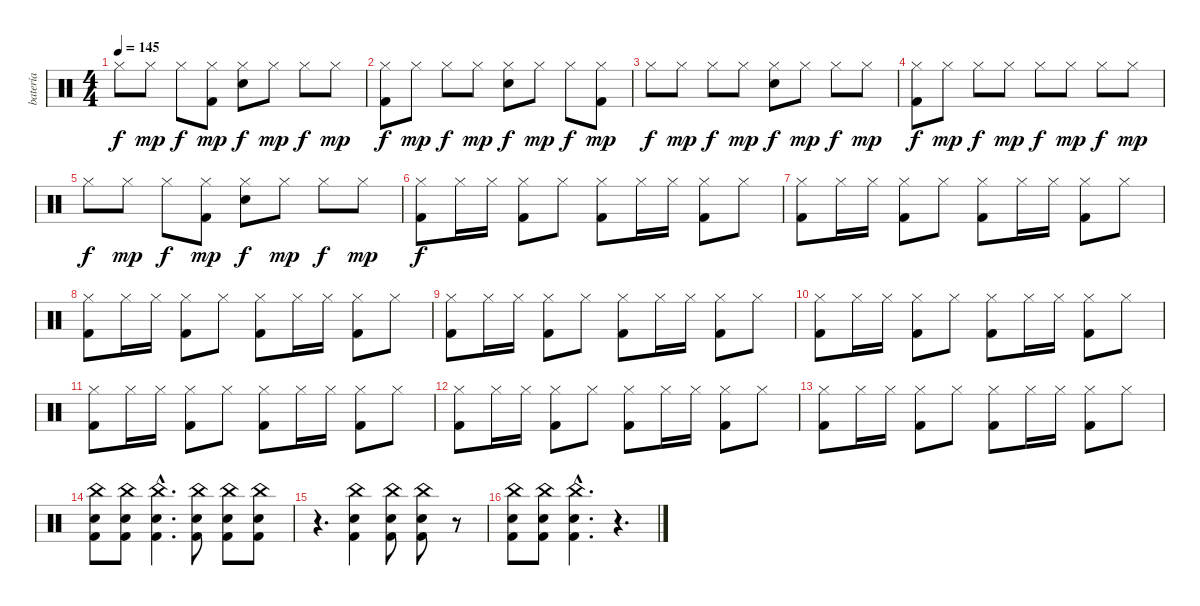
\track ("batería" "batería") {instrument percussion}
\staff {score}
\articulation defaults
\ts (4 4)
\tempo 145
\clef neutral
\ks c "Hi-Hat (closed)".8{dy f} "Hi-Hat (closed)".8{dy mp} "Hi-Hat (closed)".8{dy f}
("Hi-Hat (closed)" "Kick (hit) 2").8{dy mp} ("Hi-Hat (closed)" "Electric Snare (hit)").8{dy f} "Hi-Hat (closed)".8{dy mp} "Hi-Hat (closed)".8{dy f} "Hi-Hat (closed)".8{dy mp} |
("Hi-Hat (closed)" "Kick (hit) 2").8{dy f} "Hi-Hat (closed)".8{dy mp} "Hi-Hat (closed)".8{dy f} "Hi-Hat (closed)".8{dy mp} ("Hi-Hat (closed)" "Electric Snare (hit)").8{dy f} "Hi-Hat (closed)".8{dy mp} "Hi-Hat (closed)".8{dy f} ("Hi-Hat (closed)" "Kick (hit) 2").8{dy mp} |
"Hi-Hat (closed)".8{dy f} "Hi-Hat (closed)".8{dy mp} "Hi-Hat (closed)".8{dy f} "Hi-Hat (closed)".8{dy mp} ("Hi-Hat (closed)" "Electric Snare (hit)").8{dy f} "Hi-Hat (closed)".8{dy mp} "Hi-Hat (closed)".8{dy f} "Hi-Hat (closed)".8{dy mp} |
("Hi-Hat (closed)" "Kick (hit) 2").8{dy f} "Hi-Hat (closed)".8{dy mp} "Hi-Hat (closed)".8{dy f} "Hi-Hat (closed)".8{dy mp} "Hi-Hat (closed)".8{dy f} "Hi-Hat (closed)".8{dy mp} "Hi-Hat (closed)".8{dy f} "Hi-Hat (closed)".8{dy mp} |
"Hi-Hat (closed)".8{dy f} "Hi-Hat (closed)".8{dy mp} "Hi-Hat (closed)".8{dy f} ("Hi-Hat (closed)" "Kick (hit) 2").8{dy mp} ("Hi-Hat (closed)" "Electric Snare (hit)").8{dy f} "Hi-Hat (closed)".8{dy mp} "Hi-Hat (closed)".8{dy f} "Hi-Hat (closed)".8{dy mp} |
("Hi-Hat (closed)" "Kick (hit) 2").8{dy f} "Hi-Hat (closed)".16 "Hi-Hat (closed)".16 ("Hi-Hat (closed)" "Kick (hit) 2").8 "Hi-Hat (closed)".8 ("Hi-Hat (closed)" "Kick (hit) 2").8 "Hi-Hat (closed)".16 "Hi-Hat (closed)".16 ("Hi-Hat (closed)" "Kick (hit) 2").8 "Hi-Hat (closed)".8 |
("Hi-Hat (closed)" "Kick (hit) 2").8 "Hi-Hat (closed)".16 "Hi-Hat (closed)".16 ("Hi-Hat (closed)" "Kick (hit) 2").8 "Hi-Hat (closed)".8 ("Hi-Hat (closed)" "Kick (hit) 2").8 "Hi-Hat (closed)".16 "Hi-Hat (closed)".16 ("Hi-Hat (closed)" "Kick (hit) 2").8 "Hi-Hat (closed)".8 |
("Hi-Hat (closed)" "Kick (hit) 2").8 "Hi-Hat (closed)".16 "Hi-Hat (closed)".16 ("Hi-Hat (closed)" "Kick (hit) 2").8 "Hi-Hat (closed)".8 ("Hi-Hat (closed)" "Kick (hit) 2").8 "Hi-Hat (closed)".16 "Hi-Hat (closed)".16 ("Hi-Hat (closed)" "Kick (hit) 2").8 "Hi-Hat (closed)".8 |
("Hi-Hat (closed)" "Kick (hit) 2").8 "Hi-Hat (closed)".16 "Hi-Hat (closed)".16 ("Hi-Hat (closed)" "Kick (hit) 2").8 "Hi-Hat (closed)".8 ("Hi-Hat (closed)" "Kick (hit) 2").8 "Hi-Hat (closed)".16 "Hi-Hat (closed)".16 ("Hi-Hat (closed)" "Kick (hit) 2").8 "Hi-Hat (closed)".8 |
("Hi-Hat (closed)" "Kick (hit) 2").8 "Hi-Hat (closed)".16 "Hi-Hat (closed)".16 ("Hi-Hat (closed)" "Kick (hit) 2").8 "Hi-Hat (closed)".8 ("Hi-Hat (closed)" "Kick (hit) 2").8 "Hi-Hat (closed)".16 "Hi-Hat (closed)".16 ("Hi-Hat (closed)" "Kick (hit) 2").8 "Hi-Hat (closed)".8 |
("Hi-Hat (closed)" "Kick (hit) 2").8 "Hi-Hat (closed)".16 "Hi-Hat (closed)".16 ("Hi-Hat (closed)" "Kick (hit) 2").8 "Hi-Hat (closed)".8 ("Hi-Hat (closed)" "Kick (hit) 2").8 "Hi-Hat (closed)".16 "Hi-Hat (closed)".16 ("Hi-Hat (closed)" "Kick (hit) 2").8 "Hi-Hat (closed)".8 |
("Hi-Hat (closed)" "Kick (hit) 2").8 "Hi-Hat (closed)".16 "Hi-Hat (closed)".16 ("Hi-Hat (closed)" "Kick (hit) 2").8 "Hi-Hat (closed)".8 ("Hi-Hat (closed)" "Kick (hit) 2").8 "Hi-Hat (closed)".16 "Hi-Hat (closed)".16 ("Hi-Hat (closed)" "Kick (hit) 2").8 "Hi-Hat (closed)".8 |
("Hi-Hat (closed)" "Kick (hit) 2").8 "Hi-Hat (closed)".16 "Hi-Hat (closed)".16 ("Hi-Hat (closed)" "Kick (hit) 2").8 "Hi-Hat (closed)".8 ("Hi-Hat (closed)" "Kick (hit) 2").8 "Hi-Hat (closed)".16 "Hi-Hat (closed)".16 ("Hi-Hat (closed)" "Kick (hit) 2").8 "Hi-Hat (closed)".8 |
("China (hit)" "Electric Snare (hit)" "Kick (hit) 2").8 ("China (hit)" "Electric Snare (hit)" "Kick (hit) 2").8 ("China (hit)"{hac} "Electric Snare (hit)"{hac} "Kick (hit) 2"{hac}).4{d} ("China (hit)" "Electric Snare (hit)" "Kick (hit) 2").8 ("China (hit)" "Electric Snare (hit)" "Kick (hit) 2").8 ("China (hit)" "Electric Snare (hit)" "Kick (hit) 2").8 |
r.4{d} ("China (hit)" "Electric Snare (hit)" "Kick (hit) 2").4 ("China (hit)" "Electric Snare (hit)" "Kick (hit) 2").8 ("China (hit)" "Electric Snare (hit)" "Kick (hit) 2").8 r.8 |
("China (hit)" "Electric Snare (hit)" "Kick (hit) 2").8 ("China (hit)" "Electric Snare (hit)" "Kick (hit) 2").8 ("China (hit)"{hac} "Electric Snare (hit)"{hac} "Kick (hit) 2"{hac}).4{d} r.4{d}
